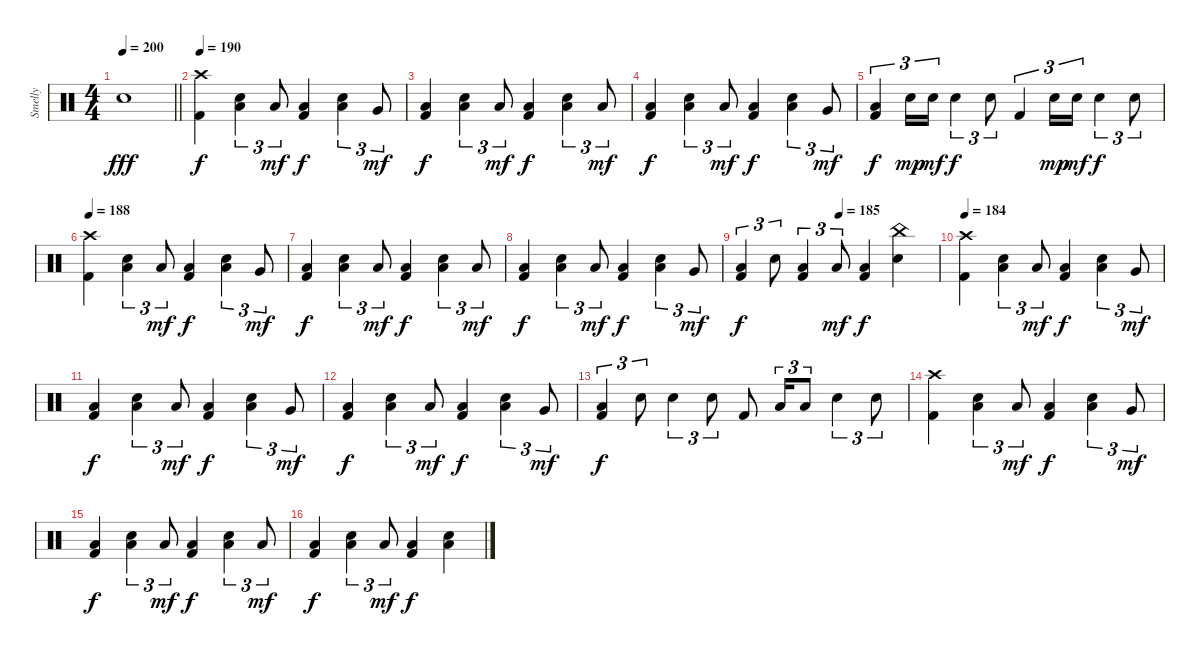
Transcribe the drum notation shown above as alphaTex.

\track ("Smelly" "Smelly") {instrument percussion}
\staff {score}
\articulation defaults
\ts (4 4)
\tempo 200
\clef neutral
\barLineRight lightlight
\ks c "Electric Snare (hit)".1{dy fff}
|
\section ("" "")
\tempo 190
("Crash high (hit)" "Kick (hit) 2").4{dy f} ("Electric Snare (hit)" "Low Floor Tom (hit)").4{tu (3 2)} "Low Floor Tom (hit)".8{tu (3 2) dy mf} ("Low Floor Tom (hit)" "Kick (hit) 2").4{dy f} ("Electric Snare (hit)" "Low Floor Tom (hit)").4{tu (3 2)} "Very Low Tom (hit)".8{tu (3 2) dy mf} |
("Low Floor Tom (hit)" "Kick (hit) 2").4{dy f} ("Electric Snare (hit)" "Low Floor Tom (hit)").4{tu (3 2)} "Low Floor Tom (hit)".8{tu (3 2) dy mf} ("Low Floor Tom (hit)" "Kick (hit) 2").4{dy f} ("Electric Snare (hit)" "Low Floor Tom (hit)").4{tu (3 2)} "Low Floor Tom (hit)".8{tu (3 2) dy mf} |
("Low Floor Tom (hit)" "Kick (hit) 2").4{dy f} ("Electric Snare (hit)" "Low Floor Tom (hit)").4{tu (3 2)} "Low Floor Tom (hit)".8{tu (3 2) dy mf} ("Low Floor Tom (hit)" "Kick (hit) 2").4{dy f} ("Electric Snare (hit)" "Low Floor Tom (hit)").4{tu (3 2)} "Very Low Tom (hit)".8{tu (3 2) dy mf} |
("Low Floor Tom (hit)" "Kick (hit) 2").4{tu (3 2) dy f} "Electric Snare (hit)".16{tu (3 2) dy mp} "Electric Snare (hit)".16{tu (3 2) dy mf} "Electric Snare (hit)".4{tu (3 2) dy f} "Electric Snare (hit)".8{tu (3 2)} "Kick (hit) 2".4{tu (3 2)} "Electric Snare (hit)".16{tu (3 2) dy mp} "Electric Snare (hit)".16{tu (3 2) dy mf} "Electric Snare (hit)".4{tu (3 2) dy f} "Electric Snare (hit)".8{tu (3 2)} |
\tempo 188
("Crash high (hit)" "Kick (hit) 2").4 ("Electric Snare (hit)" "Low Floor Tom (hit)").4{tu (3 2)} "Low Floor Tom (hit)".8{tu (3 2) dy mf} ("Low Floor Tom (hit)" "Kick (hit) 2").4{dy f} ("Electric Snare (hit)" "Low Floor Tom (hit)").4{tu (3 2)} "Very Low Tom (hit)".8{tu (3 2) dy mf} |
("Low Floor Tom (hit)" "Kick (hit) 2").4{dy f} ("Electric Snare (hit)" "Low Floor Tom (hit)").4{tu (3 2)} "Low Floor Tom (hit)".8{tu (3 2) dy mf} ("Low Floor Tom (hit)" "Kick (hit) 2").4{dy f} ("Electric Snare (hit)" "Low Floor Tom (hit)").4{tu (3 2)} "Low Floor Tom (hit)".8{tu (3 2) dy mf} |
("Low Floor Tom (hit)" "Kick (hit) 2").4{dy f} ("Electric Snare (hit)" "Low Floor Tom (hit)").4{tu (3 2)} "Low Floor Tom (hit)".8{tu (3 2) dy mf} ("Low Floor Tom (hit)" "Kick (hit) 2").4{dy f} ("Electric Snare (hit)" "Low Floor Tom (hit)").4{tu (3 2)} "Very Low Tom (hit)".8{tu (3 2) dy mf} |
\tempo (185 0.5)
("Low Floor Tom (hit)" "Kick (hit) 2").4{tu (3 2) dy f} "Electric Snare (hit)".8{tu (3 2)} ("Low Floor Tom (hit)" "Kick (hit) 2").4{tu (3 2)} "Low Floor Tom (hit)".8{tu (3 2) dy mf} ("Low Floor Tom (hit)" "Kick (hit) 2").4{dy f} ("China (hit)" "Electric Snare (hit)").4 |
\tempo 184
("Crash high (hit)" "Kick (hit) 2").4 ("Electric Snare (hit)" "Low Floor Tom (hit)").4{tu (3 2)} "Low Floor Tom (hit)".8{tu (3 2) dy mf} ("Low Floor Tom (hit)" "Kick (hit) 2").4{dy f} ("Electric Snare (hit)" "Low Floor Tom (hit)").4{tu (3 2)} "Very Low Tom (hit)".8{tu (3 2) dy mf} |
("Low Floor Tom (hit)" "Kick (hit) 2").4{dy f} ("Electric Snare (hit)" "Low Floor Tom (hit)").4{tu (3 2)} "Low Floor Tom (hit)".8{tu (3 2) dy mf} ("Low Floor Tom (hit)" "Kick (hit) 2").4{dy f} ("Electric Snare (hit)" "Low Floor Tom (hit)").4{tu (3 2)} "Very Low Tom (hit)".8{tu (3 2) dy mf} |
("Low Floor Tom (hit)" "Kick (hit) 2").4{dy f} ("Electric Snare (hit)" "Low Floor Tom (hit)").4{tu (3 2)} "Low Floor Tom (hit)".8{tu (3 2) dy mf} ("Low Floor Tom (hit)" "Kick (hit) 2").4{dy f} ("Electric Snare (hit)" "Low Floor Tom (hit)").4{tu (3 2)} "Very Low Tom (hit)".8{tu (3 2) dy mf} |
("Low Floor Tom (hit)" "Kick (hit) 2").4{tu (3 2) dy f} "Electric Snare (hit)".8{tu (3 2)} "Electric Snare (hit)".4{tu (3 2)} "Electric Snare (hit)".8{tu (3 2)} "Kick (hit) 2".8 "Low Tom (hit)".16{tu (3 2)} "Low Tom (hit)".8{tu (3 2)} "Electric Snare (hit)".4{tu (3 2)} "Electric Snare (hit)".8{tu (3 2)} |
("Crash high (hit)" "Kick (hit) 2").4 ("Electric Snare (hit)" "Low Floor Tom (hit)").4{tu (3 2)} "Low Floor Tom (hit)".8{tu (3 2) dy mf} ("Low Floor Tom (hit)" "Kick (hit) 2").4{dy f} ("Electric Snare (hit)" "Low Floor Tom (hit)").4{tu (3 2)} "Very Low Tom (hit)".8{tu (3 2) dy mf} |
("Low Floor Tom (hit)" "Kick (hit) 2").4{dy f} ("Electric Snare (hit)" "Low Floor Tom (hit)").4{tu (3 2)} "Low Floor Tom (hit)".8{tu (3 2) dy mf} ("Low Floor Tom (hit)" "Kick (hit) 2").4{dy f} ("Electric Snare (hit)" "Low Floor Tom (hit)").4{tu (3 2)} "Low Floor Tom (hit)".8{tu (3 2) dy mf} |
("Low Floor Tom (hit)" "Kick (hit) 2").4{dy f} ("Electric Snare (hit)" "Low Floor Tom (hit)").4{tu (3 2)} "Low Floor Tom (hit)".8{tu (3 2) dy mf} ("Low Floor Tom (hit)" "Kick (hit) 2").4{dy f} ("Electric Snare (hit)" "Low Floor Tom (hit)").4
